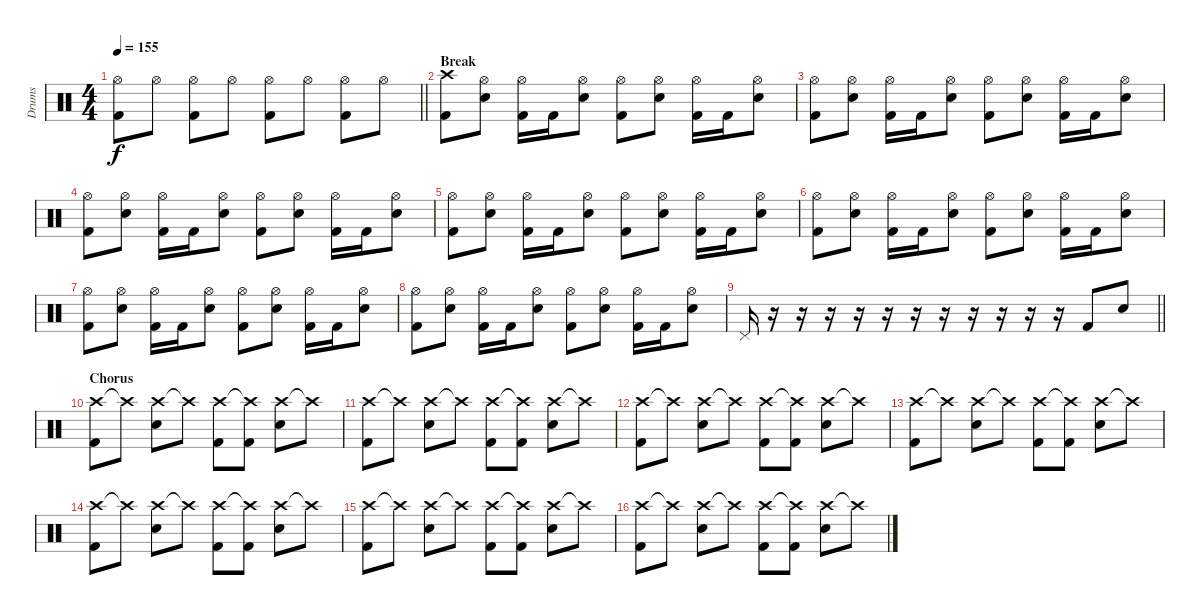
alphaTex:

\track ("Drums" "Drums") {instrument percussion}
\staff {score}
\articulation defaults
\ts (4 4)
\tempo 155
\clef neutral
\barLineRight lightlight
\ks c
("Hi-Hat (open)" "Kick (hit) 2").8{dy f} "Hi-Hat (open)".8 ("Hi-Hat (open)" "Kick (hit) 2").8 "Hi-Hat (open)".8 ("Hi-Hat (open)" "Kick (hit) 2").8 "Hi-Hat (open)".8 ("Hi-Hat (open)" "Kick (hit) 2").8 "Hi-Hat (open)".8 |
\section ("" "Break")
("Crash high (hit)" "Kick (hit) 2").8 ("Hi-Hat (open)" "Electric Snare (hit)").8 ("Hi-Hat (open)" "Kick (hit) 2").16 "Kick (hit) 2".16 ("Hi-Hat (open)" "Electric Snare (hit)").8 ("Hi-Hat (open)" "Kick (hit) 2").8 ("Hi-Hat (open)" "Electric Snare (hit)").8 ("Hi-Hat (open)" "Kick (hit) 2").16 "Kick (hit) 2".16 ("Hi-Hat (open)" "Electric Snare (hit)").8 |
("Hi-Hat (open)" "Kick (hit) 2").8 ("Hi-Hat (open)" "Electric Snare (hit)").8 ("Hi-Hat (open)" "Kick (hit) 2").16 "Kick (hit) 2".16 ("Hi-Hat (open)" "Electric Snare (hit)").8 ("Hi-Hat (open)" "Kick (hit) 2").8 ("Hi-Hat (open)" "Electric Snare (hit)").8 ("Hi-Hat (open)" "Kick (hit) 2").16 "Kick (hit) 2".16 ("Hi-Hat (open)" "Electric Snare (hit)").8 |
("Hi-Hat (open)" "Kick (hit) 2").8 ("Hi-Hat (open)" "Electric Snare (hit)").8 ("Hi-Hat (open)" "Kick (hit) 2").16 "Kick (hit) 2".16 ("Hi-Hat (open)" "Electric Snare (hit)").8 ("Hi-Hat (open)" "Kick (hit) 2").8 ("Hi-Hat (open)" "Electric Snare (hit)").8 ("Hi-Hat (open)" "Kick (hit) 2").16 "Kick (hit) 2".16 ("Hi-Hat (open)" "Electric Snare (hit)").8 |
("Hi-Hat (open)" "Kick (hit) 2").8 ("Hi-Hat (open)" "Electric Snare (hit)").8 ("Hi-Hat (open)" "Kick (hit) 2").16 "Kick (hit) 2".16 ("Hi-Hat (open)" "Electric Snare (hit)").8 ("Hi-Hat (open)" "Kick (hit) 2").8 ("Hi-Hat (open)" "Electric Snare (hit)").8 ("Hi-Hat (open)" "Kick (hit) 2").16 "Kick (hit) 2".16 ("Hi-Hat (open)" "Electric Snare (hit)").8 |
("Hi-Hat (open)" "Kick (hit) 2").8 ("Hi-Hat (open)" "Electric Snare (hit)").8 ("Hi-Hat (open)" "Kick (hit) 2").16 "Kick (hit) 2".16 ("Hi-Hat (open)" "Electric Snare (hit)").8 ("Hi-Hat (open)" "Kick (hit) 2").8 ("Hi-Hat (open)" "Electric Snare (hit)").8 ("Hi-Hat (open)" "Kick (hit) 2").16 "Kick (hit) 2".16 ("Hi-Hat (open)" "Electric Snare (hit)").8 |
("Hi-Hat (open)" "Kick (hit) 2").8 ("Hi-Hat (open)" "Electric Snare (hit)").8 ("Hi-Hat (open)" "Kick (hit) 2").16 "Kick (hit) 2".16 ("Hi-Hat (open)" "Electric Snare (hit)").8 ("Hi-Hat (open)" "Kick (hit) 2").8 ("Hi-Hat (open)" "Electric Snare (hit)").8 ("Hi-Hat (open)" "Kick (hit) 2").16 "Kick (hit) 2".16 ("Hi-Hat (open)" "Electric Snare (hit)").8 |
("Hi-Hat (open)" "Kick (hit) 2").8 ("Hi-Hat (open)" "Electric Snare (hit)").8 ("Hi-Hat (open)" "Kick (hit) 2").16 "Kick (hit) 2".16 ("Hi-Hat (open)" "Electric Snare (hit)").8 ("Hi-Hat (open)" "Kick (hit) 2").8 ("Hi-Hat (open)" "Electric Snare (hit)").8 ("Hi-Hat (open)" "Kick (hit) 2").16 "Kick (hit) 2".16 ("Hi-Hat (open)" "Electric Snare (hit)").8 |
\barLineRight lightlight "Pedal Hi-Hat (hit)".16
r.16 r.16 r.16 r.16 r.16 r.16 r.16 r.16 r.16 r.16 r.16 "Kick (hit) 2".8 "Electric Snare (hit)".8 |
\section ("" "Chorus")
("Crash high (hit)" "Kick (hit) 2").8 "Crash high (hit)"{t}.8 ("Crash high (hit)" "Electric Snare (hit)").8 "Crash high (hit)"{t}.8 ("Crash high (hit)" "Kick (hit) 2").8 ("Crash high (hit)"{t} "Kick (hit) 2").8 ("Crash high (hit)" "Electric Snare (hit)").8 "Crash high (hit)"{t}.8 |
("Crash high (hit)" "Kick (hit) 2").8 "Crash high (hit)"{t}.8 ("Crash high (hit)" "Electric Snare (hit)").8 "Crash high (hit)"{t}.8 ("Crash high (hit)" "Kick (hit) 2").8 ("Crash high (hit)"{t} "Kick (hit) 2").8 ("Crash high (hit)" "Electric Snare (hit)").8 "Crash high (hit)"{t}.8 |
("Crash high (hit)" "Kick (hit) 2").8 "Crash high (hit)"{t}.8 ("Crash high (hit)" "Electric Snare (hit)").8 "Crash high (hit)"{t}.8 ("Crash high (hit)" "Kick (hit) 2").8 ("Crash high (hit)"{t} "Kick (hit) 2").8 ("Crash high (hit)" "Electric Snare (hit)").8 "Crash high (hit)"{t}.8 |
("Crash high (hit)" "Kick (hit) 2").8 "Crash high (hit)"{t}.8 ("Crash high (hit)" "Electric Snare (hit)").8 "Crash high (hit)"{t}.8 ("Crash high (hit)" "Kick (hit) 2").8 ("Crash high (hit)"{t} "Kick (hit) 2").8 ("Crash high (hit)" "Electric Snare (hit)").8 "Crash high (hit)"{t}.8 |
("Crash high (hit)" "Kick (hit) 2").8 "Crash high (hit)"{t}.8 ("Crash high (hit)" "Electric Snare (hit)").8 "Crash high (hit)"{t}.8 ("Crash high (hit)" "Kick (hit) 2").8 ("Crash high (hit)"{t} "Kick (hit) 2").8 ("Crash high (hit)" "Electric Snare (hit)").8 "Crash high (hit)"{t}.8 |
("Crash high (hit)" "Kick (hit) 2").8 "Crash high (hit)"{t}.8 ("Crash high (hit)" "Electric Snare (hit)").8 "Crash high (hit)"{t}.8 ("Crash high (hit)" "Kick (hit) 2").8 ("Crash high (hit)"{t} "Kick (hit) 2").8 ("Crash high (hit)" "Electric Snare (hit)").8 "Crash high (hit)"{t}.8 |
("Crash high (hit)" "Kick (hit) 2").8 "Crash high (hit)"{t}.8 ("Crash high (hit)" "Electric Snare (hit)").8 "Crash high (hit)"{t}.8 ("Crash high (hit)" "Kick (hit) 2").8 ("Crash high (hit)"{t} "Kick (hit) 2").8 ("Crash high (hit)" "Electric Snare (hit)").8 "Crash high (hit)"{t}.8
